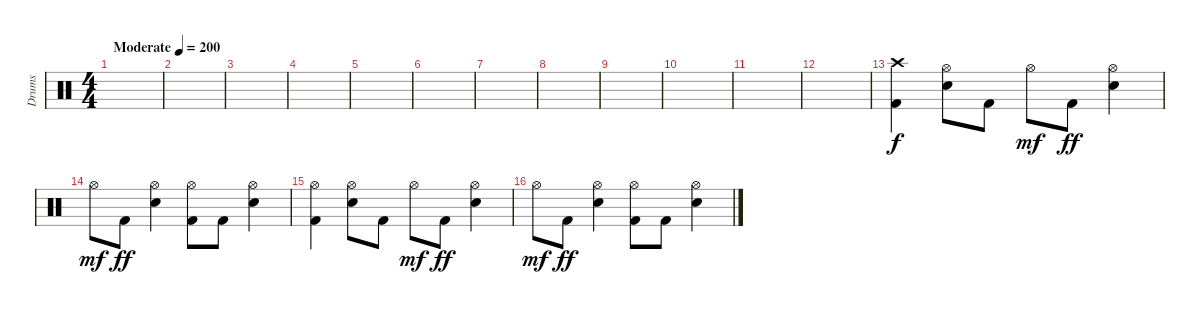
\track ("Drums" "Drums") {instrument percussion}
\staff {score}
\articulation defaults
\ts (4 4)
\tempo (200 "Moderate")
\clef neutral
\ks c
|
|
|
|
|
|
|
|
|
|
|
|
("Crash high (hit)" "Kick (hit) 2").4 ("Hi-Hat (open)" "Electric Snare (hit)").8 "Kick (hit) 2".8 "Hi-Hat (open)".8{dy mf} "Kick (hit) 2".8{dy ff} ("Hi-Hat (open)" "Electric Snare (hit)").4 |
"Hi-Hat (open)".8{dy mf} "Kick (hit) 2".8{dy ff} ("Hi-Hat (open)" "Electric Snare (hit)").4 ("Hi-Hat (open)" "Kick (hit) 2").8 "Kick (hit) 2".8 ("Hi-Hat (open)" "Electric Snare (hit)").4 |
("Hi-Hat (open)" "Kick (hit) 2").4 ("Hi-Hat (open)" "Electric Snare (hit)").8 "Kick (hit) 2".8 "Hi-Hat (open)".8{dy mf} "Kick (hit) 2".8{dy ff} ("Hi-Hat (open)" "Electric Snare (hit)").4 |
"Hi-Hat (open)".8{dy mf} "Kick (hit) 2".8{dy ff} ("Hi-Hat (open)" "Electric Snare (hit)").4 ("Hi-Hat (open)" "Kick (hit) 2").8 "Kick (hit) 2".8 ("Hi-Hat (open)" "Electric Snare (hit)").4
